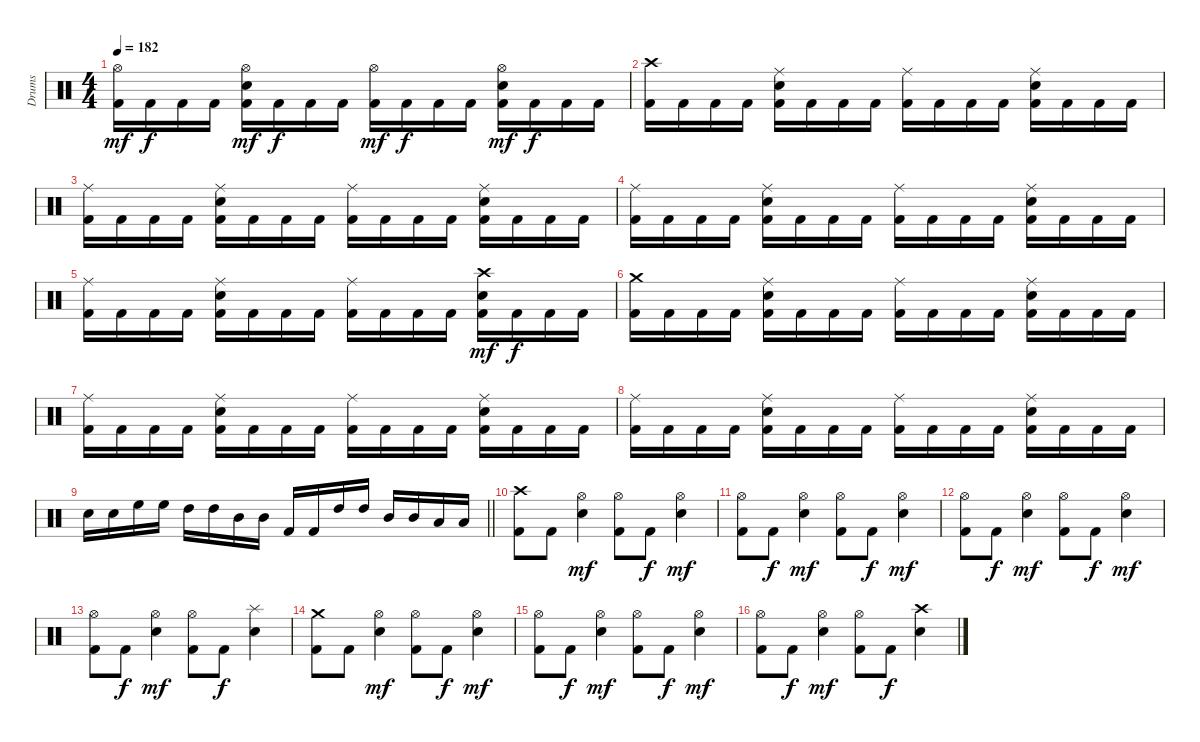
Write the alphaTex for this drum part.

\track ("Drums" "Drums") {instrument percussion}
\staff {score}
\articulation defaults
\ts (4 4)
\tempo 182
\clef neutral
\ks c
("Hi-Hat (open)" "Kick (hit) 2").16{dy mf} "Kick (hit) 2".16{dy f} "Kick (hit) 2".16 "Kick (hit) 2".16 ("Hi-Hat (open)" "Electric Snare (hit)" "Kick (hit) 2").16{dy mf} "Kick (hit) 2".16{dy f} "Kick (hit) 2".16 "Kick (hit) 2".16 ("Hi-Hat (open)" "Kick (hit) 2").16{dy mf} "Kick (hit) 2".16{dy f} "Kick (hit) 2".16 "Kick (hit) 2".16 ("Hi-Hat (open)" "Electric Snare (hit)" "Kick (hit) 2").16{dy mf} "Kick (hit) 2".16{dy f} "Kick (hit) 2".16 "Kick (hit) 2".16 |
("Crash high (hit)" "Kick (hit) 2").16 "Kick (hit) 2".16 "Kick (hit) 2".16 "Kick (hit) 2".16 ("Ride (middle)" "Electric Snare (hit)" "Kick (hit) 2").16 "Kick (hit) 2".16 "Kick (hit) 2".16 "Kick (hit) 2".16 ("Ride (middle)" "Kick (hit) 2").16 "Kick (hit) 2".16 "Kick (hit) 2".16 "Kick (hit) 2".16 ("Ride (middle)" "Electric Snare (hit)" "Kick (hit) 2").16 "Kick (hit) 2".16 "Kick (hit) 2".16 "Kick (hit) 2".16 |
("Ride (middle)" "Kick (hit) 2").16 "Kick (hit) 2".16 "Kick (hit) 2".16 "Kick (hit) 2".16 ("Ride (middle)" "Electric Snare (hit)" "Kick (hit) 2").16 "Kick (hit) 2".16 "Kick (hit) 2".16 "Kick (hit) 2".16 ("Ride (middle)" "Kick (hit) 2").16 "Kick (hit) 2".16 "Kick (hit) 2".16 "Kick (hit) 2".16 ("Ride (middle)" "Electric Snare (hit)" "Kick (hit) 2").16 "Kick (hit) 2".16 "Kick (hit) 2".16 "Kick (hit) 2".16 |
("Ride (middle)" "Kick (hit) 2").16 "Kick (hit) 2".16 "Kick (hit) 2".16 "Kick (hit) 2".16 ("Ride (middle)" "Electric Snare (hit)" "Kick (hit) 2").16 "Kick (hit) 2".16 "Kick (hit) 2".16 "Kick (hit) 2".16 ("Ride (middle)" "Kick (hit) 2").16 "Kick (hit) 2".16 "Kick (hit) 2".16 "Kick (hit) 2".16 ("Ride (middle)" "Electric Snare (hit)" "Kick (hit) 2").16 "Kick (hit) 2".16 "Kick (hit) 2".16 "Kick (hit) 2".16 |
("Ride (middle)" "Kick (hit) 2").16 "Kick (hit) 2".16 "Kick (hit) 2".16 "Kick (hit) 2".16 ("Ride (middle)" "Electric Snare (hit)" "Kick (hit) 2").16 "Kick (hit) 2".16 "Kick (hit) 2".16 "Kick (hit) 2".16 ("Ride (middle)" "Kick (hit) 2").16 "Kick (hit) 2".16 "Kick (hit) 2".16 "Kick (hit) 2".16 ("Crash high (hit)" "Electric Snare (hit)" "Kick (hit) 2").16{dy mf} "Kick (hit) 2".16{dy f} "Kick (hit) 2".16 "Kick (hit) 2".16 |
("Crash medium (hit)" "Kick (hit) 2").16 "Kick (hit) 2".16 "Kick (hit) 2".16 "Kick (hit) 2".16 ("Ride (middle)" "Electric Snare (hit)" "Kick (hit) 2").16 "Kick (hit) 2".16 "Kick (hit) 2".16 "Kick (hit) 2".16 ("Ride (middle)" "Kick (hit) 2").16 "Kick (hit) 2".16 "Kick (hit) 2".16 "Kick (hit) 2".16 ("Ride (middle)" "Electric Snare (hit)" "Kick (hit) 2").16 "Kick (hit) 2".16 "Kick (hit) 2".16 "Kick (hit) 2".16 |
("Ride (middle)" "Kick (hit) 2").16 "Kick (hit) 2".16 "Kick (hit) 2".16 "Kick (hit) 2".16 ("Ride (middle)" "Electric Snare (hit)" "Kick (hit) 2").16 "Kick (hit) 2".16 "Kick (hit) 2".16 "Kick (hit) 2".16 ("Ride (middle)" "Kick (hit) 2").16 "Kick (hit) 2".16 "Kick (hit) 2".16 "Kick (hit) 2".16 ("Ride (middle)" "Electric Snare (hit)" "Kick (hit) 2").16 "Kick (hit) 2".16 "Kick (hit) 2".16 "Kick (hit) 2".16 |
("Ride (middle)" "Kick (hit) 2").16 "Kick (hit) 2".16 "Kick (hit) 2".16 "Kick (hit) 2".16 ("Ride (middle)" "Electric Snare (hit)" "Kick (hit) 2").16 "Kick (hit) 2".16 "Kick (hit) 2".16 "Kick (hit) 2".16 ("Ride (middle)" "Kick (hit) 2").16 "Kick (hit) 2".16 "Kick (hit) 2".16 "Kick (hit) 2".16 ("Ride (middle)" "Electric Snare (hit)" "Kick (hit) 2").16 "Kick (hit) 2".16 "Kick (hit) 2".16 "Kick (hit) 2".16 |
\barLineRight lightlight "Electric Snare (hit)".16 "Electric Snare (hit)".16 "High Floor Tom (hit)".16 "High Floor Tom (hit)".16 "High Tom (hit)".16 "High Tom (hit)".16 "Mid Tom (hit)".16 "Mid Tom (hit)".16 "Kick (hit) 2".16 "Kick (hit) 2".16 "High Tom (hit)".16 "High Tom (hit)".16 "Mid Tom (hit)".16 "Mid Tom (hit)".16 "Low Tom (hit)".16 "Low Tom (hit)".16
|
("Crash high (hit)" "Kick (hit) 2").8 "Kick (hit) 2".8 ("Hi-Hat (open)" "Electric Snare (hit)").4{dy mf} ("Hi-Hat (open)" "Kick (hit) 2").8 "Kick (hit) 2".8{dy f} ("Hi-Hat (open)" "Electric Snare (hit)").4{dy mf} |
("Hi-Hat (open)" "Kick (hit) 2").8 "Kick (hit) 2".8{dy f} ("Hi-Hat (open)" "Electric Snare (hit)").4{dy mf} ("Hi-Hat (open)" "Kick (hit) 2").8 "Kick (hit) 2".8{dy f} ("Hi-Hat (open)" "Electric Snare (hit)").4{dy mf} |
("Hi-Hat (open)" "Kick (hit) 2").8 "Kick (hit) 2".8{dy f} ("Hi-Hat (open)" "Electric Snare (hit)").4{dy mf} ("Hi-Hat (open)" "Kick (hit) 2").8 "Kick (hit) 2".8{dy f} ("Hi-Hat (open)" "Electric Snare (hit)").4{dy mf} |
("Hi-Hat (open)" "Kick (hit) 2").8 "Kick (hit) 2".8{dy f} ("Hi-Hat (open)" "Electric Snare (hit)").4{dy mf} ("Hi-Hat (open)" "Kick (hit) 2").8 "Kick (hit) 2".8{dy f} ("Splash (hit)" "Electric Snare (hit)").4 |
("Crash medium (hit)" "Kick (hit) 2").8 "Kick (hit) 2".8 ("Hi-Hat (open)" "Electric Snare (hit)").4{dy mf} ("Hi-Hat (open)" "Kick (hit) 2").8 "Kick (hit) 2".8{dy f} ("Hi-Hat (open)" "Electric Snare (hit)").4{dy mf} |
("Hi-Hat (open)" "Kick (hit) 2").8 "Kick (hit) 2".8{dy f} ("Hi-Hat (open)" "Electric Snare (hit)").4{dy mf} ("Hi-Hat (open)" "Kick (hit) 2").8 "Kick (hit) 2".8{dy f} ("Hi-Hat (open)" "Electric Snare (hit)").4{dy mf} |
("Hi-Hat (open)" "Kick (hit) 2").8 "Kick (hit) 2".8{dy f} ("Hi-Hat (open)" "Electric Snare (hit)").4{dy mf} ("Hi-Hat (open)" "Kick (hit) 2").8 "Kick (hit) 2".8{dy f} ("Crash high (hit)" "Electric Snare (hit)").4
